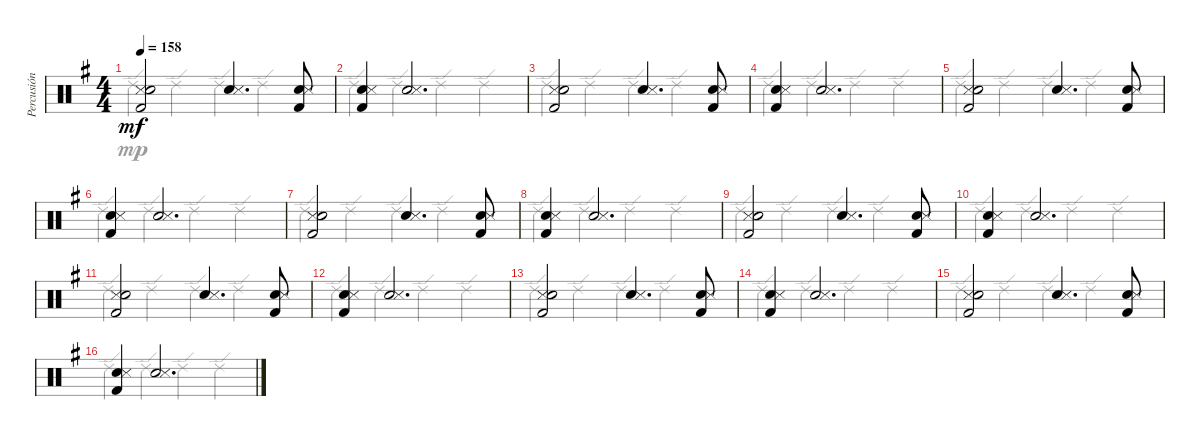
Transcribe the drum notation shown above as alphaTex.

\track ("Percusión" "Percusión") {instrument percussion}
\staff {score}
\articulation defaults
\voice
\ts (4 4)
\tempo 158
\clef neutral
\ks g
("Snare (side stick) 3" "Hand Clap (hit)" "Kick (hit) 2").2{dy mf} ("Hand Clap (hit)" "Snare (side stick) 3").4{d} ("Hand Clap (hit)" "Snare (side stick) 3" "Kick (hit) 2").8 |
("Hand Clap (hit)" "Snare (side stick) 3" "Kick (hit) 2").4 ("Hand Clap (hit)" "Snare (side stick) 3").2{d} |
("Snare (side stick) 3" "Hand Clap (hit)" "Kick (hit) 2").2 ("Hand Clap (hit)" "Snare (side stick) 3").4{d} ("Hand Clap (hit)" "Snare (side stick) 3" "Kick (hit) 2").8 |
("Hand Clap (hit)" "Snare (side stick) 3" "Kick (hit) 2").4 ("Hand Clap (hit)" "Snare (side stick) 3").2{d} |
("Snare (side stick) 3" "Hand Clap (hit)" "Kick (hit) 2").2 ("Hand Clap (hit)" "Snare (side stick) 3").4{d} ("Hand Clap (hit)" "Snare (side stick) 3" "Kick (hit) 2").8 |
("Hand Clap (hit)" "Snare (side stick) 3" "Kick (hit) 2").4 ("Hand Clap (hit)" "Snare (side stick) 3").2{d} |
("Snare (side stick) 3" "Hand Clap (hit)" "Kick (hit) 2").2 ("Hand Clap (hit)" "Snare (side stick) 3").4{d} ("Hand Clap (hit)" "Snare (side stick) 3" "Kick (hit) 2").8 |
("Hand Clap (hit)" "Snare (side stick) 3" "Kick (hit) 2").4 ("Hand Clap (hit)" "Snare (side stick) 3").2{d} |
("Snare (side stick) 3" "Hand Clap (hit)" "Kick (hit) 2").2 ("Hand Clap (hit)" "Snare (side stick) 3").4{d} ("Hand Clap (hit)" "Snare (side stick) 3" "Kick (hit) 2").8 |
("Hand Clap (hit)" "Snare (side stick) 3" "Kick (hit) 2").4 ("Hand Clap (hit)" "Snare (side stick) 3").2{d} |
("Snare (side stick) 3" "Hand Clap (hit)" "Kick (hit) 2").2 ("Hand Clap (hit)" "Snare (side stick) 3").4{d} ("Hand Clap (hit)" "Snare (side stick) 3" "Kick (hit) 2").8 |
("Hand Clap (hit)" "Snare (side stick) 3" "Kick (hit) 2").4 ("Hand Clap (hit)" "Snare (side stick) 3").2{d} |
("Snare (side stick) 3" "Hand Clap (hit)" "Kick (hit) 2").2 ("Hand Clap (hit)" "Snare (side stick) 3").4{d} ("Hand Clap (hit)" "Snare (side stick) 3" "Kick (hit) 2").8 |
("Hand Clap (hit)" "Snare (side stick) 3" "Kick (hit) 2").4 ("Hand Clap (hit)" "Snare (side stick) 3").2{d} |
("Snare (side stick) 3" "Hand Clap (hit)" "Kick (hit) 2").2 ("Hand Clap (hit)" "Snare (side stick) 3").4{d} ("Hand Clap (hit)" "Snare (side stick) 3" "Kick (hit) 2").8 |
("Hand Clap (hit)" "Snare (side stick) 3" "Kick (hit) 2").4 ("Hand Clap (hit)" "Snare (side stick) 3").2{d}
\voice
\clef neutral
\ottava regular
\simile none
\ks g "Ride (edge) 2".4{dy mp} "Ride (edge) 2".4 "Ride (edge) 2".4 "Ride (edge) 2".4
|
"Ride (edge) 2".4 "Ride (edge) 2".4 "Ride (edge) 2".4 "Ride (edge) 2".4 |
"Ride (edge) 2".4 "Ride (edge) 2".4 "Ride (edge) 2".4 "Ride (edge) 2".4 |
"Ride (edge) 2".4 "Ride (edge) 2".4 "Ride (edge) 2".4 "Ride (edge) 2".4 |
"Ride (edge) 2".4 "Ride (edge) 2".4 "Ride (edge) 2".4 "Ride (edge) 2".4 |
"Ride (edge) 2".4 "Ride (edge) 2".4 "Ride (edge) 2".4 "Ride (edge) 2".4 |
"Ride (edge) 2".4 "Ride (edge) 2".4 "Ride (edge) 2".4 "Ride (edge) 2".4 |
"Ride (edge) 2".4 "Ride (edge) 2".4 "Ride (edge) 2".4 "Ride (edge) 2".4 |
"Ride (edge) 2".4 "Ride (edge) 2".4 "Ride (edge) 2".4 "Ride (edge) 2".4 |
"Ride (edge) 2".4 "Ride (edge) 2".4 "Ride (edge) 2".4 "Ride (edge) 2".4 |
"Ride (edge) 2".4 "Ride (edge) 2".4 "Ride (edge) 2".4 "Ride (edge) 2".4 |
"Ride (edge) 2".4 "Ride (edge) 2".4 "Ride (edge) 2".4 "Ride (edge) 2".4 |
"Ride (edge) 2".4 "Ride (edge) 2".4 "Ride (edge) 2".4 "Ride (edge) 2".4 |
"Ride (edge) 2".4 "Ride (edge) 2".4 "Ride (edge) 2".4 "Ride (edge) 2".4 |
"Ride (edge) 2".4 "Ride (edge) 2".4 "Ride (edge) 2".4 "Ride (edge) 2".4 |
"Ride (edge) 2".4 "Ride (edge) 2".4 "Ride (edge) 2".4 "Ride (edge) 2".4
